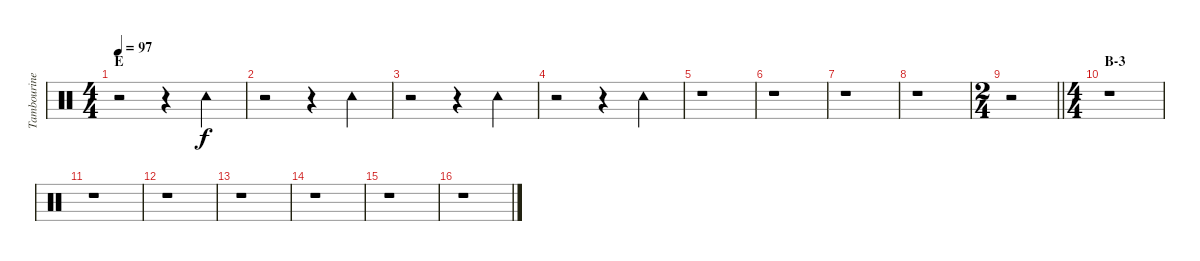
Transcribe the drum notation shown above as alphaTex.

\track ("Tambourine" "Tambourine") {instrument percussion}
\staff {score}
\articulation defaults
\ts (4 4)
\section ("" "E")
\tempo 97
\clef neutral
\ks c
r.2{dy f} r.4 "Tambourine (hit)".4 |
r.2 r.4 "Tambourine (hit)".4 |
r.2 r.4 "Tambourine (hit)".4 |
r.2 r.4 "Tambourine (hit)".4 |
r.1 |
r.1 |
r.1 |
r.1 |
\ts (2 4)
\barLineRight lightlight
r.2 |
\ts (4 4)
\section ("" "B-3")
r.1 |
r.1 |
r.1 |
r.1 |
r.1 |
r.1 |
r.1
